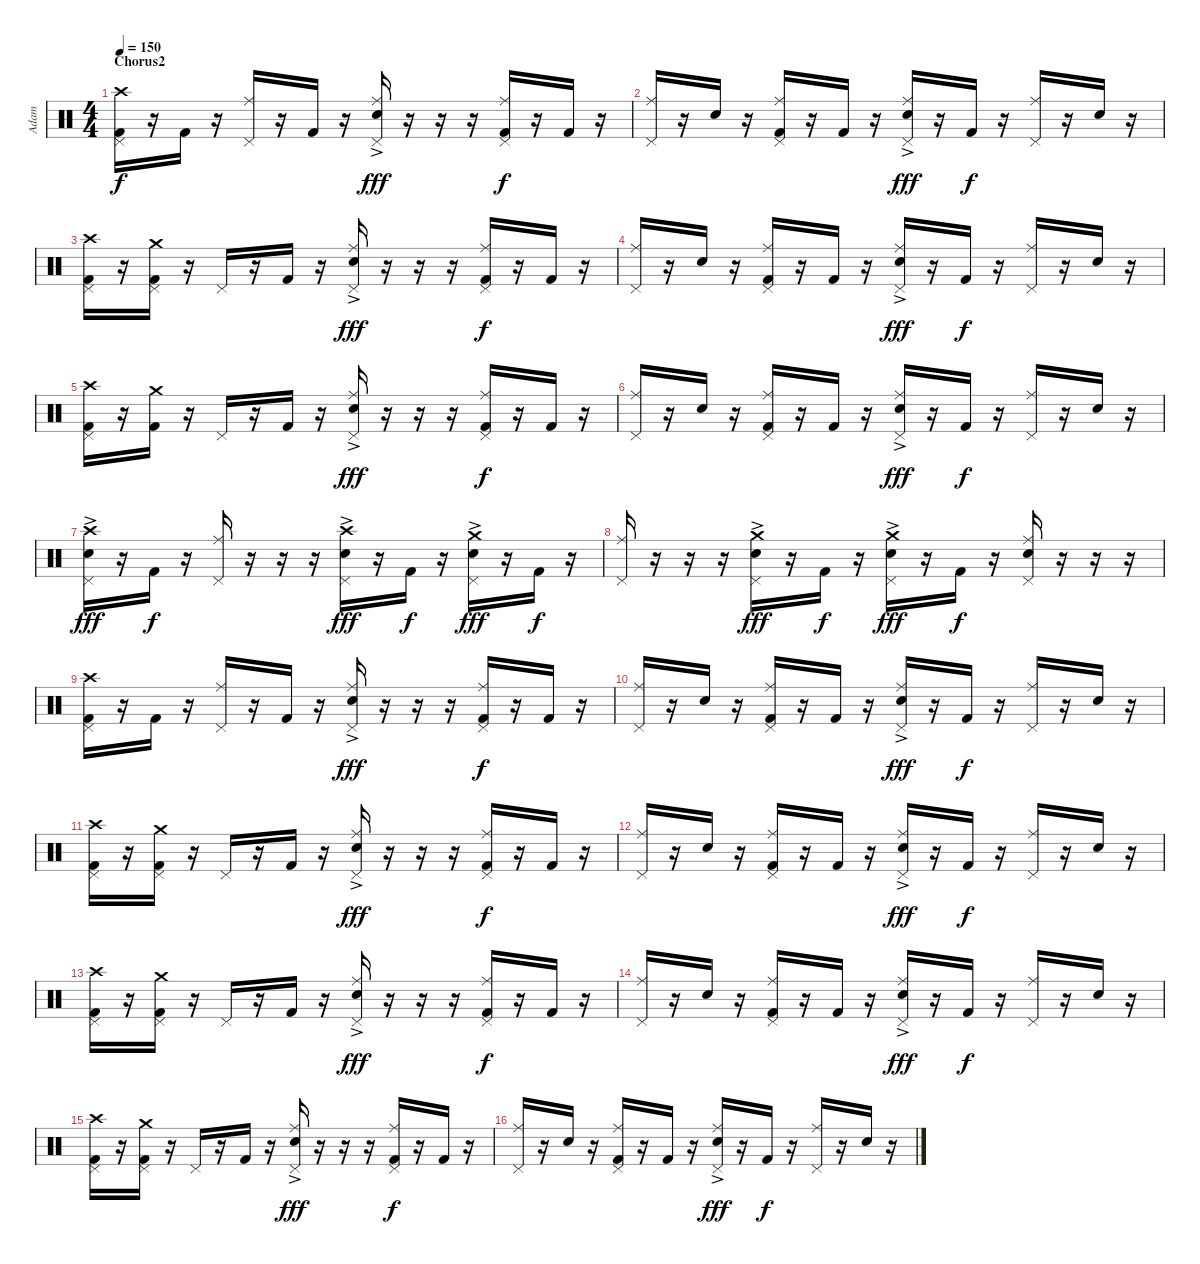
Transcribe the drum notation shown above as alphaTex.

\track ("Adam" "Adam") {instrument percussion}
\staff {score}
\articulation defaults
\ts (4 4)
\section ("" "Chorus2")
\tempo 150
\clef neutral
\ks c
("Crash high (hit)" "Pedal Hi-Hat (hit)" "Kick (hit) 2").16{dy f} r.16 "Kick (hit) 2".16 r.16 ("Ride (middle)" "Pedal Hi-Hat (hit)").16 r.16 "Kick (hit) 2".16 r.16 ("Ride (middle)" "Pedal Hi-Hat (hit)" "Electric Snare (hit)"{ac}).16{dy fff} r.16 r.16 r.16 ("Ride (middle)" "Pedal Hi-Hat (hit)" "Kick (hit) 2").16{dy f} r.16 "Kick (hit) 2".16 r.16 |
("Ride (middle)" "Pedal Hi-Hat (hit)").16 r.16 "Electric Snare (hit)".16 r.16 ("Ride (middle)" "Pedal Hi-Hat (hit)" "Kick (hit) 2").16 r.16 "Kick (hit) 2".16 r.16 ("Ride (middle)" "Pedal Hi-Hat (hit)" "Electric Snare (hit)"{ac}).16{dy fff} r.16 "Kick (hit) 2".16{dy f} r.16 ("Ride (middle)" "Pedal Hi-Hat (hit)").16 r.16 "Electric Snare (hit)".16 r.16 |
("Crash high (hit)" "Pedal Hi-Hat (hit)" "Kick (hit) 2").16 r.16 ("Crash medium (hit)" "Pedal Hi-Hat (hit)" "Kick (hit) 2").16 r.16 "Pedal Hi-Hat (hit)".16 r.16 "Kick (hit) 2".16 r.16 ("Ride (middle)" "Pedal Hi-Hat (hit)" "Electric Snare (hit)"{ac}).16{dy fff} r.16 r.16 r.16 ("Ride (middle)" "Pedal Hi-Hat (hit)" "Kick (hit) 2").16{dy f} r.16 "Kick (hit) 2".16 r.16 |
("Ride (middle)" "Pedal Hi-Hat (hit)").16 r.16 "Electric Snare (hit)".16 r.16 ("Ride (middle)" "Pedal Hi-Hat (hit)" "Kick (hit) 2").16 r.16 "Kick (hit) 2".16 r.16 ("Ride (middle)" "Pedal Hi-Hat (hit)" "Electric Snare (hit)"{ac}).16{dy fff} r.16 "Kick (hit) 2".16{dy f} r.16 ("Ride (middle)" "Pedal Hi-Hat (hit)").16 r.16 "Electric Snare (hit)".16 r.16 |
("Crash high (hit)" "Pedal Hi-Hat (hit)" "Kick (hit) 2").16 r.16 ("Crash medium (hit)" "Kick (hit) 2").16 r.16 "Pedal Hi-Hat (hit)".16 r.16 "Kick (hit) 2".16 r.16 ("Ride (middle)" "Pedal Hi-Hat (hit)" "Electric Snare (hit)"{ac}).16{dy fff} r.16 r.16 r.16 ("Ride (middle)" "Pedal Hi-Hat (hit)" "Kick (hit) 2").16{dy f} r.16 "Kick (hit) 2".16 r.16 |
("Ride (middle)" "Pedal Hi-Hat (hit)").16 r.16 "Electric Snare (hit)".16 r.16 ("Ride (middle)" "Pedal Hi-Hat (hit)" "Kick (hit) 2").16 r.16 "Kick (hit) 2".16 r.16 ("Ride (middle)" "Pedal Hi-Hat (hit)" "Electric Snare (hit)"{ac}).16{dy fff} r.16 "Kick (hit) 2".16{dy f} r.16 ("Ride (middle)" "Pedal Hi-Hat (hit)").16 r.16 "Electric Snare (hit)".16 r.16 |
("Crash high (hit)" "Pedal Hi-Hat (hit)" "Electric Snare (hit)"{ac}).16{dy fff} r.16 "Kick (hit) 2".16{dy f} r.16 ("Pedal Hi-Hat (hit)" "Ride (middle)").16 r.16 r.16 r.16 ("Crash high (hit)" "Pedal Hi-Hat (hit)" "Electric Snare (hit)"{ac}).16{dy fff} r.16 "Kick (hit) 2".16{dy f} r.16 ("Crash medium (hit)" "Pedal Hi-Hat (hit)" "Electric Snare (hit)"{ac}).16{dy fff} r.16 "Kick (hit) 2".16{dy f} r.16 |
("Pedal Hi-Hat (hit)" "Ride (middle)").16 r.16 r.16 r.16 ("Crash medium (hit)" "Pedal Hi-Hat (hit)" "Electric Snare (hit)"{ac}).16{dy fff} r.16 "Kick (hit) 2".16{dy f} r.16 ("Crash medium (hit)" "Pedal Hi-Hat (hit)" "Electric Snare (hit)"{ac}).16{dy fff} r.16 "Kick (hit) 2".16{dy f} r.16 ("Pedal Hi-Hat (hit)" "Ride (middle)" "Electric Snare (hit)").16 r.16 r.16 r.16 |
("Crash high (hit)" "Pedal Hi-Hat (hit)" "Kick (hit) 2").16 r.16 "Kick (hit) 2".16 r.16 ("Ride (middle)" "Pedal Hi-Hat (hit)").16 r.16 "Kick (hit) 2".16 r.16 ("Ride (middle)" "Pedal Hi-Hat (hit)" "Electric Snare (hit)"{ac}).16{dy fff} r.16 r.16 r.16 ("Ride (middle)" "Pedal Hi-Hat (hit)" "Kick (hit) 2").16{dy f} r.16 "Kick (hit) 2".16 r.16 |
("Ride (middle)" "Pedal Hi-Hat (hit)").16 r.16 "Electric Snare (hit)".16 r.16 ("Ride (middle)" "Pedal Hi-Hat (hit)" "Kick (hit) 2").16 r.16 "Kick (hit) 2".16 r.16 ("Ride (middle)" "Pedal Hi-Hat (hit)" "Electric Snare (hit)"{ac}).16{dy fff} r.16 "Kick (hit) 2".16{dy f} r.16 ("Ride (middle)" "Pedal Hi-Hat (hit)").16 r.16 "Electric Snare (hit)".16 r.16 |
("Crash high (hit)" "Pedal Hi-Hat (hit)" "Kick (hit) 2").16 r.16 ("Crash medium (hit)" "Pedal Hi-Hat (hit)" "Kick (hit) 2").16 r.16 "Pedal Hi-Hat (hit)".16 r.16 "Kick (hit) 2".16 r.16 ("Ride (middle)" "Pedal Hi-Hat (hit)" "Electric Snare (hit)"{ac}).16{dy fff} r.16 r.16 r.16 ("Ride (middle)" "Pedal Hi-Hat (hit)" "Kick (hit) 2").16{dy f} r.16 "Kick (hit) 2".16 r.16 |
("Ride (middle)" "Pedal Hi-Hat (hit)").16 r.16 "Electric Snare (hit)".16 r.16 ("Ride (middle)" "Pedal Hi-Hat (hit)" "Kick (hit) 2").16 r.16 "Kick (hit) 2".16 r.16 ("Ride (middle)" "Pedal Hi-Hat (hit)" "Electric Snare (hit)"{ac}).16{dy fff} r.16 "Kick (hit) 2".16{dy f} r.16 ("Ride (middle)" "Pedal Hi-Hat (hit)").16 r.16 "Electric Snare (hit)".16 r.16 |
("Crash high (hit)" "Pedal Hi-Hat (hit)" "Kick (hit) 2").16 r.16 ("Crash medium (hit)" "Pedal Hi-Hat (hit)" "Kick (hit) 2").16 r.16 "Pedal Hi-Hat (hit)".16 r.16 "Kick (hit) 2".16 r.16 ("Ride (middle)" "Pedal Hi-Hat (hit)" "Electric Snare (hit)"{ac}).16{dy fff} r.16 r.16 r.16 ("Ride (middle)" "Pedal Hi-Hat (hit)" "Kick (hit) 2").16{dy f} r.16 "Kick (hit) 2".16 r.16 |
("Ride (middle)" "Pedal Hi-Hat (hit)").16 r.16 "Electric Snare (hit)".16 r.16 ("Ride (middle)" "Pedal Hi-Hat (hit)" "Kick (hit) 2").16 r.16 "Kick (hit) 2".16 r.16 ("Ride (middle)" "Pedal Hi-Hat (hit)" "Electric Snare (hit)"{ac}).16{dy fff} r.16 "Kick (hit) 2".16{dy f} r.16 ("Ride (middle)" "Pedal Hi-Hat (hit)").16 r.16 "Electric Snare (hit)".16 r.16 |
("Crash high (hit)" "Pedal Hi-Hat (hit)" "Kick (hit) 2").16 r.16 ("Crash medium (hit)" "Pedal Hi-Hat (hit)" "Kick (hit) 2").16 r.16 "Pedal Hi-Hat (hit)".16 r.16 "Kick (hit) 2".16 r.16 ("Ride (middle)" "Pedal Hi-Hat (hit)" "Electric Snare (hit)"{ac}).16{dy fff} r.16 r.16 r.16 ("Ride (middle)" "Pedal Hi-Hat (hit)" "Kick (hit) 2").16{dy f} r.16 "Kick (hit) 2".16 r.16 |
("Ride (middle)" "Pedal Hi-Hat (hit)").16 r.16 "Electric Snare (hit)".16 r.16 ("Ride (middle)" "Pedal Hi-Hat (hit)" "Kick (hit) 2").16 r.16 "Kick (hit) 2".16 r.16 ("Ride (middle)" "Pedal Hi-Hat (hit)" "Electric Snare (hit)"{ac}).16{dy fff} r.16 "Kick (hit) 2".16{dy f} r.16 ("Ride (middle)" "Pedal Hi-Hat (hit)").16 r.16 "Electric Snare (hit)".16 r.16
